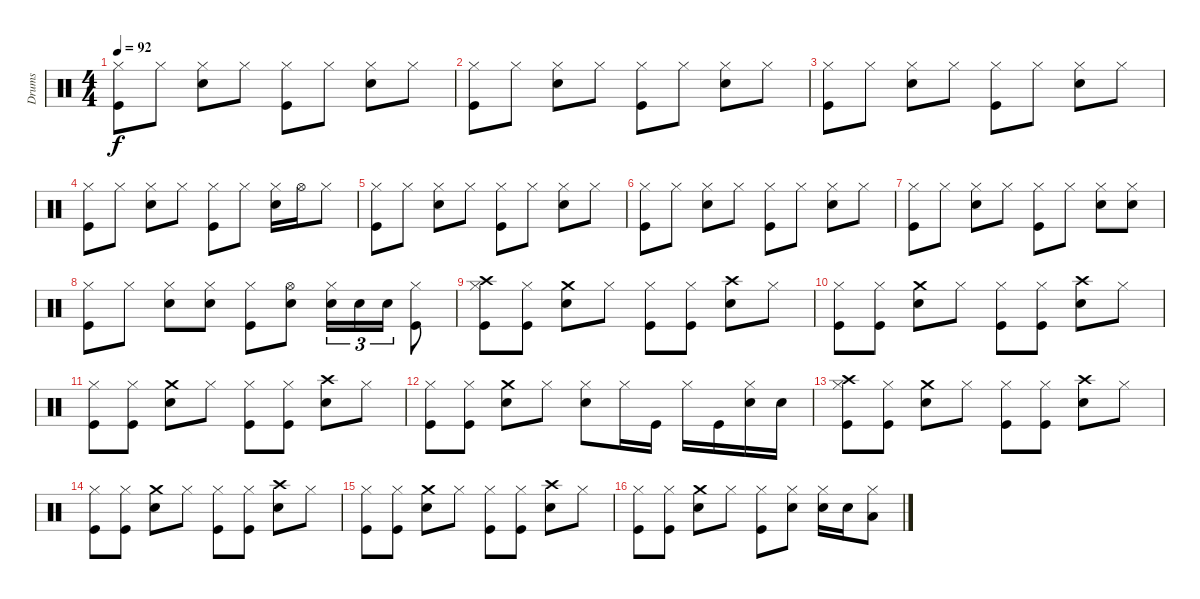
\track ("Drums" "Drums") {instrument percussion}
\staff {score}
\articulation defaults
\ts (4 4)
\tempo 92
\clef neutral
\ks c
("Kick (hit)" "Hi-Hat (closed)").8{dy f} "Hi-Hat (closed)".8 ("Electric Snare (hit)" "Hi-Hat (closed)").8 "Hi-Hat (closed)".8 ("Kick (hit)" "Hi-Hat (closed)").8 "Hi-Hat (closed)".8 ("Electric Snare (hit)" "Hi-Hat (closed)").8 "Hi-Hat (closed)".8 |
("Kick (hit)" "Hi-Hat (closed)").8 "Hi-Hat (closed)".8 ("Electric Snare (hit)" "Hi-Hat (closed)").8 "Hi-Hat (closed)".8 ("Kick (hit)" "Hi-Hat (closed)").8 "Hi-Hat (closed)".8 ("Electric Snare (hit)" "Hi-Hat (closed)").8 "Hi-Hat (closed)".8 |
("Kick (hit)" "Hi-Hat (closed)").8 "Hi-Hat (closed)".8 ("Electric Snare (hit)" "Hi-Hat (closed)").8 "Hi-Hat (closed)".8 ("Kick (hit)" "Hi-Hat (closed)").8 "Hi-Hat (closed)".8 ("Electric Snare (hit)" "Hi-Hat (closed)").8 "Hi-Hat (closed)".8 |
("Kick (hit)" "Hi-Hat (closed)").8 "Hi-Hat (closed)".8 ("Electric Snare (hit)" "Hi-Hat (closed)").8 "Hi-Hat (closed)".8 ("Kick (hit)" "Hi-Hat (closed)").8 "Hi-Hat (closed)".8 ("Electric Snare (hit)" "Hi-Hat (closed)").16 "Hi-Hat (open)".16 "Hi-Hat (closed)".8 |
("Kick (hit)" "Hi-Hat (closed)").8 "Hi-Hat (closed)".8 ("Electric Snare (hit)" "Hi-Hat (closed)").8 "Hi-Hat (closed)".8 ("Kick (hit)" "Hi-Hat (closed)").8 "Hi-Hat (closed)".8 ("Electric Snare (hit)" "Hi-Hat (closed)").8 "Hi-Hat (closed)".8 |
("Kick (hit)" "Hi-Hat (closed)").8 "Hi-Hat (closed)".8 ("Electric Snare (hit)" "Hi-Hat (closed)").8 "Hi-Hat (closed)".8 ("Kick (hit)" "Hi-Hat (closed)").8 "Hi-Hat (closed)".8 ("Electric Snare (hit)" "Hi-Hat (closed)").8 "Hi-Hat (closed)".8 |
("Kick (hit)" "Hi-Hat (closed)").8 "Hi-Hat (closed)".8 ("Electric Snare (hit)" "Hi-Hat (closed)").8 "Hi-Hat (closed)".8 ("Kick (hit)" "Hi-Hat (closed)").8 "Hi-Hat (closed)".8 ("Electric Snare (hit)" "Hi-Hat (closed)").8 ("Electric Snare (hit)" "Hi-Hat (closed)").8 |
("Kick (hit)" "Hi-Hat (closed)").8 "Hi-Hat (closed)".8 ("Electric Snare (hit)" "Hi-Hat (closed)").8 ("Electric Snare (hit)" "Hi-Hat (closed)").8 ("Kick (hit)" "Hi-Hat (closed)").8 ("Electric Snare (hit)" "Hi-Hat (open)").8 ("Electric Snare (hit)" "Hi-Hat (closed)").16{tu (3 2)} "Electric Snare (hit)".16{tu (3 2)} "Electric Snare (hit)".16{tu (3 2)} ("Kick (hit)" "Hi-Hat (closed)").8 |
("Kick (hit)" "Hi-Hat (closed)" "Crash high (hit)").8 ("Kick (hit)" "Hi-Hat (closed)").8 ("Electric Snare (hit)" "Crash medium (hit)").8 "Hi-Hat (closed)".8 ("Kick (hit)" "Hi-Hat (closed)").8 ("Kick (hit)" "Hi-Hat (closed)").8 ("Electric Snare (hit)" "Crash high (hit)").8 "Hi-Hat (closed)".8 |
("Kick (hit)" "Hi-Hat (closed)").8 ("Kick (hit)" "Hi-Hat (closed)").8 ("Electric Snare (hit)" "Crash medium (hit)").8 "Hi-Hat (closed)".8 ("Kick (hit)" "Hi-Hat (closed)").8 ("Kick (hit)" "Hi-Hat (closed)").8 ("Electric Snare (hit)" "Crash high (hit)").8 "Hi-Hat (closed)".8 |
("Kick (hit)" "Hi-Hat (closed)").8 ("Kick (hit)" "Hi-Hat (closed)").8 ("Electric Snare (hit)" "Crash medium (hit)").8 "Hi-Hat (closed)".8 ("Kick (hit)" "Hi-Hat (closed)").8 ("Kick (hit)" "Hi-Hat (closed)").8 ("Electric Snare (hit)" "Crash high (hit)").8 "Hi-Hat (closed)".8 |
("Kick (hit)" "Hi-Hat (closed)").8 ("Kick (hit)" "Hi-Hat (closed)").8 ("Electric Snare (hit)" "Crash medium (hit)").8 "Hi-Hat (closed)".8 ("Electric Snare (hit)" "Hi-Hat (closed)").8 "Hi-Hat (closed)".16 "Kick (hit)".16 "Hi-Hat (closed)".16 "Kick (hit)".16 ("Electric Snare (hit)" "Hi-Hat (closed)").16 "Electric Snare (hit)".16 |
("Kick (hit)" "Hi-Hat (closed)" "Crash high (hit)").8 ("Kick (hit)" "Hi-Hat (closed)").8 ("Electric Snare (hit)" "Crash medium (hit)").8 "Hi-Hat (closed)".8 ("Kick (hit)" "Hi-Hat (closed)").8 ("Kick (hit)" "Hi-Hat (closed)").8 ("Electric Snare (hit)" "Crash high (hit)").8 "Hi-Hat (closed)".8 |
("Kick (hit)" "Hi-Hat (closed)").8 ("Kick (hit)" "Hi-Hat (closed)").8 ("Electric Snare (hit)" "Crash medium (hit)").8 "Hi-Hat (closed)".8 ("Kick (hit)" "Hi-Hat (closed)").8 ("Kick (hit)" "Hi-Hat (closed)").8 ("Electric Snare (hit)" "Crash high (hit)").8 "Hi-Hat (closed)".8 |
("Kick (hit)" "Hi-Hat (closed)").8 ("Kick (hit)" "Hi-Hat (closed)").8 ("Electric Snare (hit)" "Crash medium (hit)").8 "Hi-Hat (closed)".8 ("Kick (hit)" "Hi-Hat (closed)").8 ("Kick (hit)" "Hi-Hat (closed)").8 ("Electric Snare (hit)" "Crash high (hit)").8 "Hi-Hat (closed)".8 |
("Kick (hit)" "Hi-Hat (closed)").8 ("Kick (hit)" "Hi-Hat (closed)").8 ("Electric Snare (hit)" "Crash medium (hit)").8 "Hi-Hat (closed)".8 ("Kick (hit)" "Hi-Hat (closed)").8 ("Electric Snare (hit)" "Hi-Hat (closed)").8 ("Electric Snare (hit)" "Hi-Hat (closed)").16 "Electric Snare (hit)".16 ("Low Tom (hit)" "Hi-Hat (closed)").8
